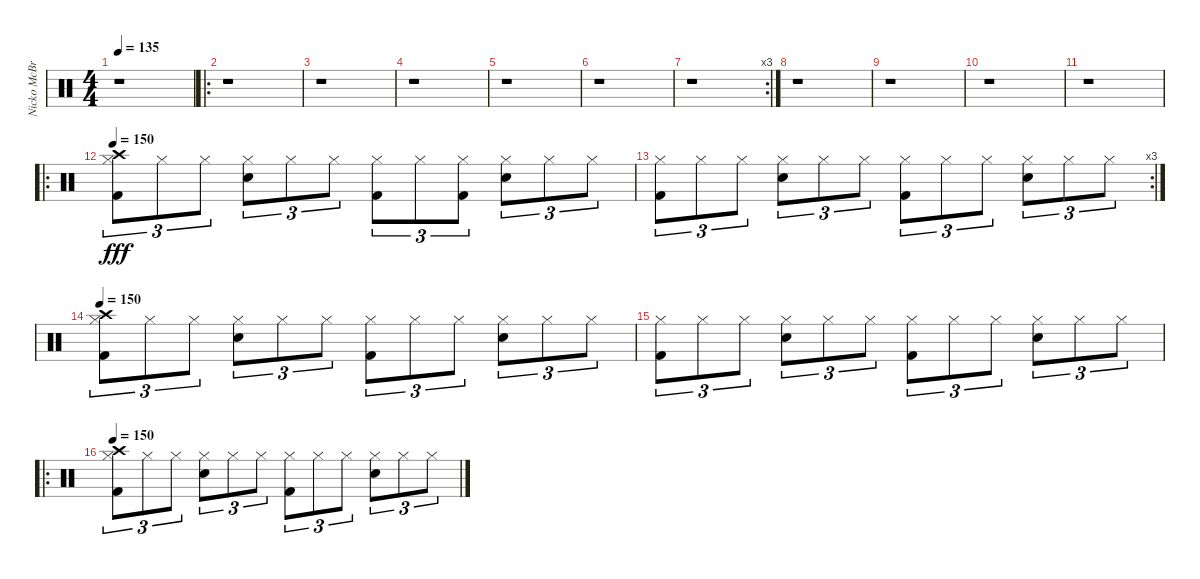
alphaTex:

\track ("Nicko McBrain" "Nicko McBr") {instrument percussion}
\staff {score}
\articulation defaults
\ts (4 4)
\tempo 135
\clef neutral
\ks c
r.1{dy fff} |
\ro
r.1 |
r.1 |
r.1 |
r.1 |
r.1 |
\rc 3
r.1 |
r.1 |
r.1 |
r.1 |
r.1 |
\ro
\tempo 150
("Hi-Hat (closed)" "Kick (hit) 2" "Crash high (hit)").8{tu (3 2)} "Hi-Hat (closed)".8{tu (3 2)} "Hi-Hat (closed)".8{tu (3 2)} ("Hi-Hat (closed)" "Snare (hit) 2").8{tu (3 2)} "Hi-Hat (closed)".8{tu (3 2)} "Hi-Hat (closed)".8{tu (3 2)} ("Hi-Hat (closed)" "Kick (hit) 2").8{tu (3 2)} "Hi-Hat (closed)".8{tu (3 2)} ("Hi-Hat (closed)" "Kick (hit) 2").8{tu (3 2)} ("Hi-Hat (closed)" "Snare (hit) 2").8{tu (3 2)} "Hi-Hat (closed)".8{tu (3 2)} "Hi-Hat (closed)".8{tu (3 2)} |
\rc 3
("Hi-Hat (closed)" "Kick (hit) 2").8{tu (3 2)} "Hi-Hat (closed)".8{tu (3 2)} "Hi-Hat (closed)".8{tu (3 2)} ("Hi-Hat (closed)" "Snare (hit) 2").8{tu (3 2)} "Hi-Hat (closed)".8{tu (3 2)} "Hi-Hat (closed)".8{tu (3 2)} ("Hi-Hat (closed)" "Kick (hit) 2").8{tu (3 2)} "Hi-Hat (closed)".8{tu (3 2)} "Hi-Hat (closed)".8{tu (3 2)} ("Hi-Hat (closed)" "Snare (hit) 2").8{tu (3 2)} "Hi-Hat (closed)".8{tu (3 2)} "Hi-Hat (closed)".8{tu (3 2)} |
\tempo 150
("Hi-Hat (closed)" "Kick (hit) 2" "Crash high (hit)").8{tu (3 2)} "Hi-Hat (closed)".8{tu (3 2)} "Hi-Hat (closed)".8{tu (3 2)} ("Hi-Hat (closed)" "Snare (hit) 2").8{tu (3 2)} "Hi-Hat (closed)".8{tu (3 2)} "Hi-Hat (closed)".8{tu (3 2)} ("Hi-Hat (closed)" "Kick (hit) 2").8{tu (3 2)} "Hi-Hat (closed)".8{tu (3 2)} "Hi-Hat (closed)".8{tu (3 2)} ("Hi-Hat (closed)" "Snare (hit) 2").8{tu (3 2)} "Hi-Hat (closed)".8{tu (3 2)} "Hi-Hat (closed)".8{tu (3 2)} |
("Hi-Hat (closed)" "Kick (hit) 2").8{tu (3 2)} "Hi-Hat (closed)".8{tu (3 2)} "Hi-Hat (closed)".8{tu (3 2)} ("Hi-Hat (closed)" "Snare (hit) 2").8{tu (3 2)} "Hi-Hat (closed)".8{tu (3 2)} "Hi-Hat (closed)".8{tu (3 2)} ("Hi-Hat (closed)" "Kick (hit) 2").8{tu (3 2)} "Hi-Hat (closed)".8{tu (3 2)} "Hi-Hat (closed)".8{tu (3 2)} ("Hi-Hat (closed)" "Snare (hit) 2").8{tu (3 2)} "Hi-Hat (closed)".8{tu (3 2)} "Hi-Hat (closed)".8{tu (3 2)} |
\ro
\tempo 150
("Hi-Hat (closed)" "Kick (hit) 2" "Crash high (hit)").8{tu (3 2)} "Hi-Hat (closed)".8{tu (3 2)} "Hi-Hat (closed)".8{tu (3 2)} ("Hi-Hat (closed)" "Snare (hit) 2").8{tu (3 2)} "Hi-Hat (closed)".8{tu (3 2)} "Hi-Hat (closed)".8{tu (3 2)} ("Hi-Hat (closed)" "Kick (hit) 2").8{tu (3 2)} "Hi-Hat (closed)".8{tu (3 2)} "Hi-Hat (closed)".8{tu (3 2)} ("Hi-Hat (closed)" "Snare (hit) 2").8{tu (3 2)} "Hi-Hat (closed)".8{tu (3 2)} "Hi-Hat (closed)".8{tu (3 2)}
